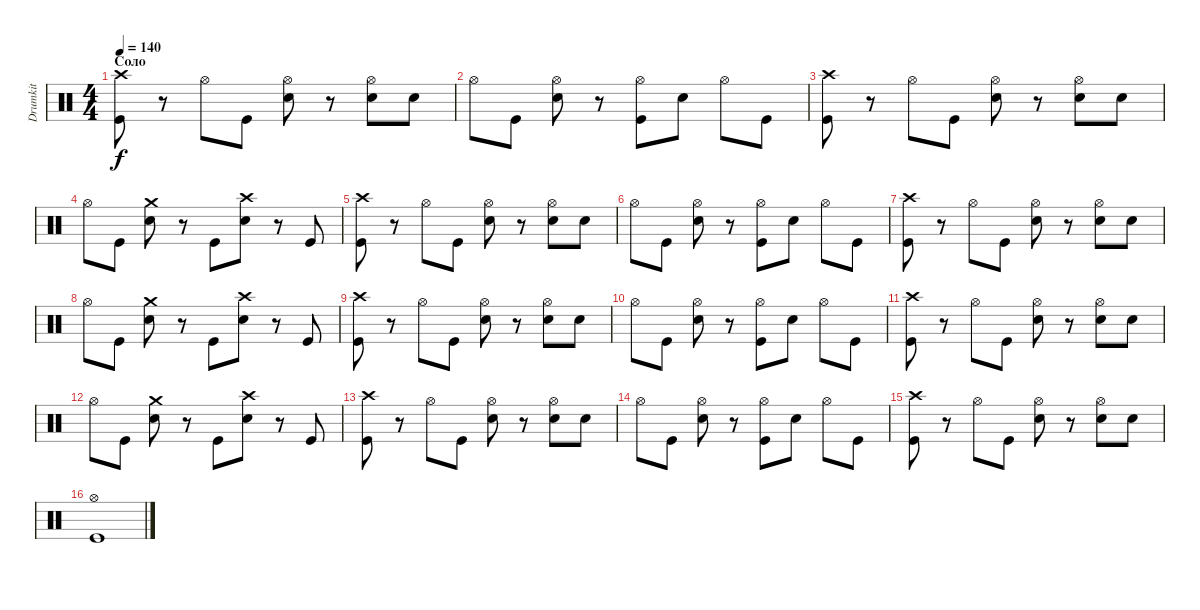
\track ("Drumkit" "Drumkit") {instrument percussion}
\staff {score}
\articulation defaults
\ts (4 4)
\section ("" "Соло")
\tempo 140
\clef neutral
\ks c
("Kick (hit)" "Crash high (hit)").8{dy f} r.8 "Hi-Hat (open)".8 "Kick (hit)".8 ("Snare (hit) 2" "Hi-Hat (open)").8 r.8 ("Snare (hit) 2" "Hi-Hat (open)").8 "Snare (hit) 2".8 |
"Hi-Hat (open)".8 "Kick (hit)".8 ("Hi-Hat (open)" "Snare (hit) 2").8 r.8 ("Hi-Hat (open)" "Kick (hit)").8 "Snare (hit) 2".8 "Hi-Hat (open)".8 "Kick (hit)".8 |
("Kick (hit)" "Crash high (hit)").8 r.8 "Hi-Hat (open)".8 "Kick (hit)".8 ("Snare (hit) 2" "Hi-Hat (open)").8 r.8 ("Snare (hit) 2" "Hi-Hat (open)").8 "Snare (hit) 2".8 |
"Hi-Hat (open)".8 "Kick (hit)".8 ("Crash medium (hit)" "Snare (hit) 2").8 r.8 "Kick (hit)".8 ("Crash high (hit)" "Snare (hit) 2").8 r.8 "Kick (hit)".8 |
("Kick (hit)" "Crash high (hit)").8 r.8 "Hi-Hat (open)".8 "Kick (hit)".8 ("Snare (hit) 2" "Hi-Hat (open)").8 r.8 ("Snare (hit) 2" "Hi-Hat (open)").8 "Snare (hit) 2".8 |
"Hi-Hat (open)".8 "Kick (hit)".8 ("Hi-Hat (open)" "Snare (hit) 2").8 r.8 ("Hi-Hat (open)" "Kick (hit)").8 "Snare (hit) 2".8 "Hi-Hat (open)".8 "Kick (hit)".8 |
("Kick (hit)" "Crash high (hit)").8 r.8 "Hi-Hat (open)".8 "Kick (hit)".8 ("Snare (hit) 2" "Hi-Hat (open)").8 r.8 ("Snare (hit) 2" "Hi-Hat (open)").8 "Snare (hit) 2".8 |
"Hi-Hat (open)".8 "Kick (hit)".8 ("Crash medium (hit)" "Snare (hit) 2").8 r.8 "Kick (hit)".8 ("Crash high (hit)" "Snare (hit) 2").8 r.8 "Kick (hit)".8 |
("Kick (hit)" "Crash high (hit)").8 r.8 "Hi-Hat (open)".8 "Kick (hit)".8 ("Snare (hit) 2" "Hi-Hat (open)").8 r.8 ("Snare (hit) 2" "Hi-Hat (open)").8 "Snare (hit) 2".8 |
"Hi-Hat (open)".8 "Kick (hit)".8 ("Hi-Hat (open)" "Snare (hit) 2").8 r.8 ("Hi-Hat (open)" "Kick (hit)").8 "Snare (hit) 2".8 "Hi-Hat (open)".8 "Kick (hit)".8 |
("Kick (hit)" "Crash high (hit)").8 r.8 "Hi-Hat (open)".8 "Kick (hit)".8 ("Snare (hit) 2" "Hi-Hat (open)").8 r.8 ("Snare (hit) 2" "Hi-Hat (open)").8 "Snare (hit) 2".8 |
"Hi-Hat (open)".8 "Kick (hit)".8 ("Crash medium (hit)" "Snare (hit) 2").8 r.8 "Kick (hit)".8 ("Crash high (hit)" "Snare (hit) 2").8 r.8 "Kick (hit)".8 |
("Kick (hit)" "Crash high (hit)").8 r.8 "Hi-Hat (open)".8 "Kick (hit)".8 ("Snare (hit) 2" "Hi-Hat (open)").8 r.8 ("Snare (hit) 2" "Hi-Hat (open)").8 "Snare (hit) 2".8 |
"Hi-Hat (open)".8 "Kick (hit)".8 ("Hi-Hat (open)" "Snare (hit) 2").8 r.8 ("Hi-Hat (open)" "Kick (hit)").8 "Snare (hit) 2".8 "Hi-Hat (open)".8 "Kick (hit)".8 |
("Kick (hit)" "Crash high (hit)").8 r.8 "Hi-Hat (open)".8 "Kick (hit)".8 ("Snare (hit) 2" "Hi-Hat (open)").8 r.8 ("Snare (hit) 2" "Hi-Hat (open)").8 "Snare (hit) 2".8 |
("Hi-Hat (open)" "Kick (hit)").1
